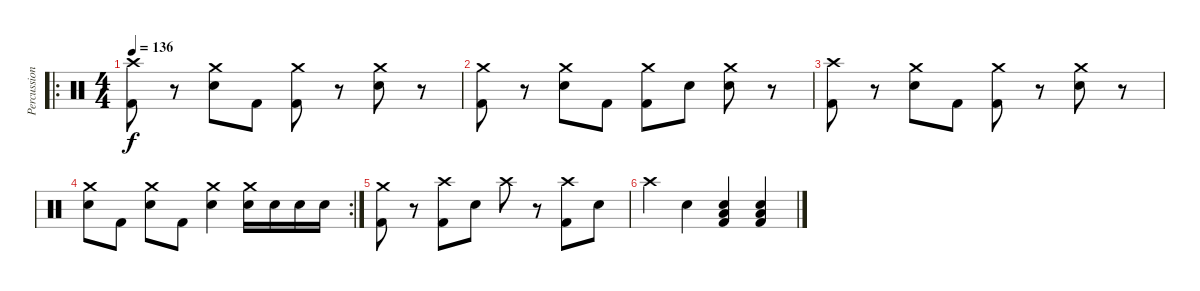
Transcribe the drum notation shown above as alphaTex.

\track ("Percussion" "Percussion") {instrument percussion}
\staff {score}
\articulation defaults
\ro
\ts (4 4)
\tempo 136
\clef neutral
\ks c
("Crash high (hit)" "Kick (hit) 2").8{dy f} r.8 ("Crash medium (hit)" "Snare (hit) 2").8 "Kick (hit) 2".8 ("Crash medium (hit)" "Kick (hit) 2").8 r.8 ("Crash medium (hit)" "Snare (hit) 2").8 r.8 |
("Crash medium (hit)" "Kick (hit) 2").8 r.8 ("Crash medium (hit)" "Snare (hit) 2").8 "Kick (hit) 2".8 ("Crash medium (hit)" "Kick (hit) 2").8 "Snare (hit) 2".8 ("Crash medium (hit)" "Snare (hit) 2").8 r.8 |
("Crash high (hit)" "Kick (hit) 2").8 r.8 ("Crash medium (hit)" "Snare (hit) 2").8 "Kick (hit) 2".8 ("Crash medium (hit)" "Kick (hit) 2").8 r.8 ("Crash medium (hit)" "Snare (hit) 2").8 r.8 |
\rc 2
("Crash medium (hit)" "Snare (hit) 2").8 "Kick (hit) 2".8 ("Crash medium (hit)" "Snare (hit) 2").8 "Kick (hit) 2".8 ("Crash medium (hit)" "Snare (hit) 2").4 ("Crash medium (hit)" "Snare (hit) 2").16 "Snare (hit) 2".16 "Snare (hit) 2".16 "Snare (hit) 2".16 |
("Crash medium (hit)" "Kick (hit) 2").8 r.8 ("Crash high (hit)" "Kick (hit) 2").8 "Snare (hit) 2".8 "Crash high (hit)".8 r.8 ("Crash high (hit)" "Kick (hit) 2").8 "Snare (hit) 2".8 |
"Crash high (hit)".4 "Snare (hit) 2".4 ("Electric Snare (hit)" "Low Tom (hit)" "Kick (hit) 2").4 ("Electric Snare (hit)" "Low Tom (hit)" "Kick (hit) 2").4
